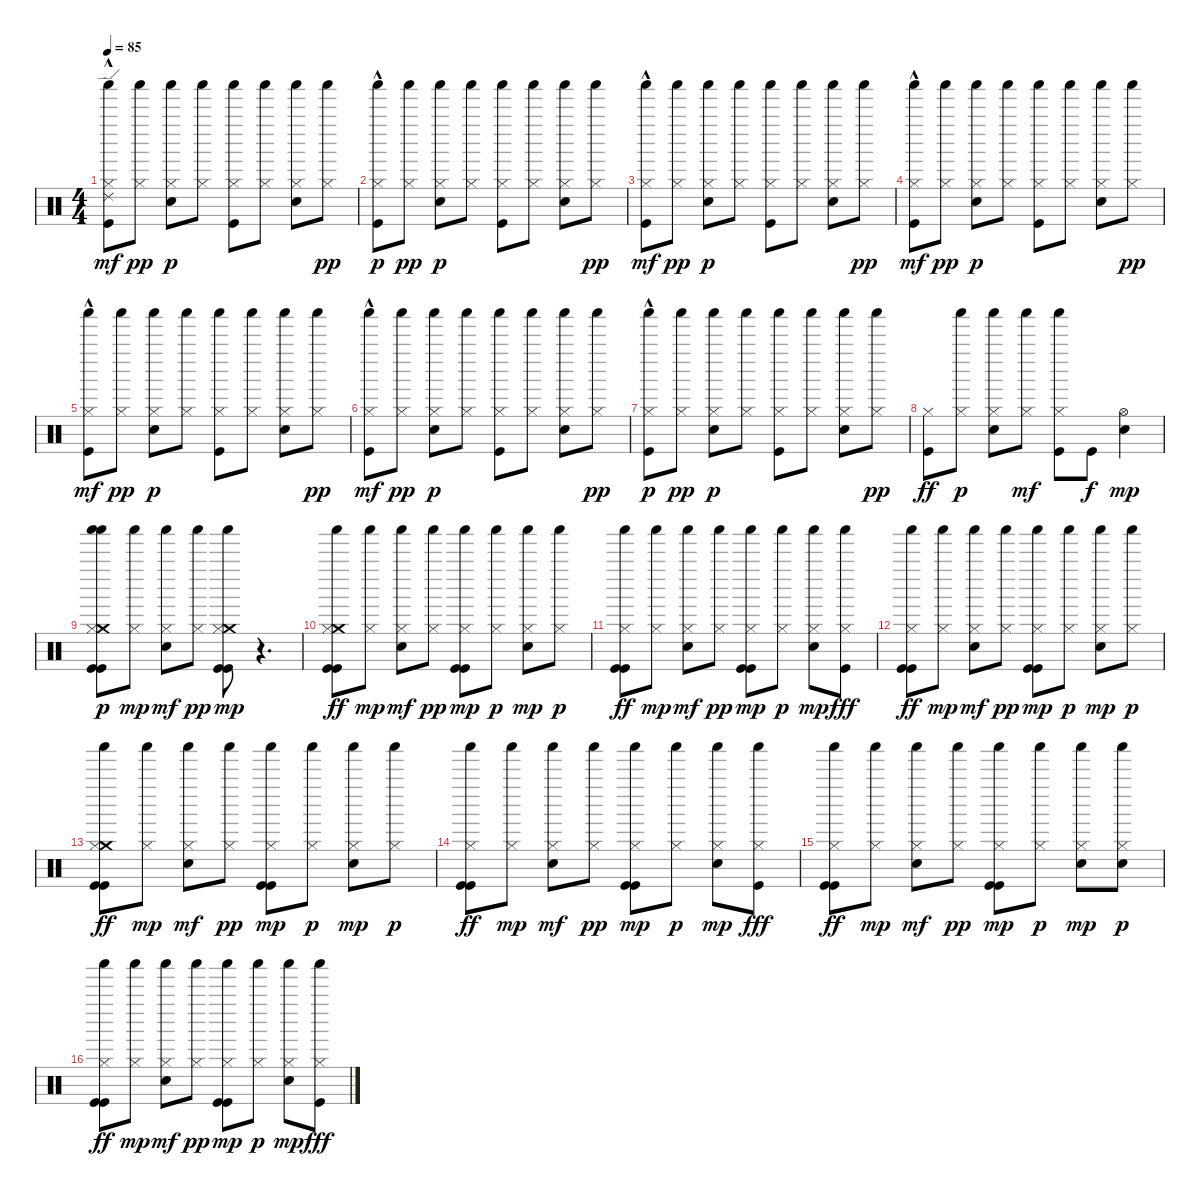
\track "" {instrument percussion}
\staff {score}
\articulation defaults
\ts (4 4)
\tempo 85
\clef neutral
\ks c
("Ride (edge) 2" "Hi-Hat (closed)" "Shaker (hit)" "Kick (hit)"{hac}).8{dy mf} ("Hi-Hat (closed)" "Shaker (hit)").8{dy pp} ("Electric Snare (hit)" "Hi-Hat (closed)" "Shaker (hit)").8{dy p} ("Hi-Hat (closed)" "Shaker (hit)").8 ("Hi-Hat (closed)" "Shaker (hit)" "Kick (hit)").8 ("Hi-Hat (closed)" "Shaker (hit)").8 ("Electric Snare (hit)" "Shaker (hit)" "Hi-Hat (closed)").8 ("Hi-Hat (closed)" "Shaker (hit)").8{dy pp} |
("Kick (hit)"{hac} "Hi-Hat (closed)" "Shaker (hit)").8{dy p} ("Hi-Hat (closed)" "Shaker (hit)").8{dy pp} ("Electric Snare (hit)" "Hi-Hat (closed)" "Shaker (hit)").8{dy p} ("Hi-Hat (closed)" "Shaker (hit)").8 ("Kick (hit)" "Hi-Hat (closed)" "Shaker (hit)").8 ("Hi-Hat (closed)" "Shaker (hit)").8 ("Electric Snare (hit)" "Shaker (hit)" "Hi-Hat (closed)").8 ("Hi-Hat (closed)" "Shaker (hit)").8{dy pp} |
("Hi-Hat (closed)" "Shaker (hit)" "Kick (hit)"{hac}).8{dy mf} ("Hi-Hat (closed)" "Shaker (hit)").8{dy pp} ("Electric Snare (hit)" "Hi-Hat (closed)" "Shaker (hit)").8{dy p} ("Hi-Hat (closed)" "Shaker (hit)").8 ("Hi-Hat (closed)" "Shaker (hit)" "Kick (hit)").8 ("Hi-Hat (closed)" "Shaker (hit)").8 ("Electric Snare (hit)" "Shaker (hit)" "Hi-Hat (closed)").8 ("Hi-Hat (closed)" "Shaker (hit)").8{dy pp} |
("Hi-Hat (closed)" "Shaker (hit)" "Kick (hit)"{hac}).8{dy mf} ("Hi-Hat (closed)" "Shaker (hit)").8{dy pp} ("Electric Snare (hit)" "Hi-Hat (closed)" "Shaker (hit)").8{dy p} ("Hi-Hat (closed)" "Shaker (hit)").8 ("Hi-Hat (closed)" "Shaker (hit)" "Kick (hit)").8 ("Hi-Hat (closed)" "Shaker (hit)").8 ("Electric Snare (hit)" "Shaker (hit)" "Hi-Hat (closed)").8 ("Hi-Hat (closed)" "Shaker (hit)").8{dy pp} |
("Hi-Hat (closed)" "Shaker (hit)" "Kick (hit)"{hac}).8{dy mf} ("Hi-Hat (closed)" "Shaker (hit)").8{dy pp} ("Electric Snare (hit)" "Hi-Hat (closed)" "Shaker (hit)").8{dy p} ("Hi-Hat (closed)" "Shaker (hit)").8 ("Hi-Hat (closed)" "Shaker (hit)" "Kick (hit)").8 ("Hi-Hat (closed)" "Shaker (hit)").8 ("Electric Snare (hit)" "Shaker (hit)" "Hi-Hat (closed)").8 ("Hi-Hat (closed)" "Shaker (hit)").8{dy pp} |
("Hi-Hat (closed)" "Shaker (hit)" "Kick (hit)"{hac}).8{dy mf} ("Hi-Hat (closed)" "Shaker (hit)").8{dy pp} ("Electric Snare (hit)" "Hi-Hat (closed)" "Shaker (hit)").8{dy p} ("Hi-Hat (closed)" "Shaker (hit)").8 ("Hi-Hat (closed)" "Shaker (hit)" "Kick (hit)").8 ("Hi-Hat (closed)" "Shaker (hit)").8 ("Electric Snare (hit)" "Shaker (hit)" "Hi-Hat (closed)").8 ("Hi-Hat (closed)" "Shaker (hit)").8{dy pp} |
("Kick (hit)"{hac} "Hi-Hat (closed)" "Shaker (hit)").8{dy p} ("Hi-Hat (closed)" "Shaker (hit)").8{dy pp} ("Electric Snare (hit)" "Hi-Hat (closed)" "Shaker (hit)").8{dy p} ("Hi-Hat (closed)" "Shaker (hit)").8 ("Kick (hit)" "Hi-Hat (closed)" "Shaker (hit)").8 ("Hi-Hat (closed)" "Shaker (hit)").8 ("Electric Snare (hit)" "Shaker (hit)" "Hi-Hat (closed)").8 ("Hi-Hat (closed)" "Shaker (hit)").8{dy pp} |
("Hi-Hat (closed)" "Kick (hit)").8{dy ff} ("Shaker (hit)" "Hi-Hat (closed)").8{dy p} ("Shaker (hit)" "Electric Snare (hit)" "Hi-Hat (closed)").8 ("Shaker (hit)" "Hi-Hat (closed)").8{dy mf} ("Kick (hit)" "Shaker (hit)" "Hi-Hat (closed)").8 "Kick (hit)".8{dy f} ("Hi-Hat (open)" "Electric Snare (hit)").4{dy mp} |
("Kick (hit)" "Shaker (hit)" "Crash medium (hit)" "Kick (hit)" "Hi-Hat (closed)" "Shaker (hit)").8{dy p} ("Hi-Hat (closed)" "Shaker (hit)").8{dy mp} ("Hi-Hat (closed)" "Shaker (hit)" "Metronome (bell)").8{dy mf} ("Hi-Hat (closed)" "Shaker (hit)").8{dy pp} ("Crash medium (hit)" "Kick (hit)" "Kick (hit)" "Hi-Hat (closed)" "Shaker (hit)").8{dy mp} r.4{d} |
("Crash medium (hit)" "Kick (hit)" "Hi-Hat (closed)" "Shaker (hit)" "Kick (hit)").8{dy ff} ("Hi-Hat (closed)" "Shaker (hit)").8{dy mp} ("Hi-Hat (closed)" "Shaker (hit)" "Metronome (bell)").8{dy mf} ("Hi-Hat (closed)" "Shaker (hit)").8{dy pp} ("Kick (hit)" "Kick (hit)" "Hi-Hat (closed)" "Shaker (hit)").8{dy mp} ("Hi-Hat (closed)" "Shaker (hit)").8{dy p} ("Metronome (bell)" "Shaker (hit)" "Hi-Hat (closed)").8{dy mp} ("Hi-Hat (closed)" "Shaker (hit)").8{dy p} |
("Kick (hit)" "Hi-Hat (closed)" "Shaker (hit)" "Kick (hit)").8{dy ff} ("Hi-Hat (closed)" "Shaker (hit)").8{dy mp} ("Hi-Hat (closed)" "Shaker (hit)" "Metronome (bell)").8{dy mf} ("Hi-Hat (closed)" "Shaker (hit)").8{dy pp} ("Kick (hit)" "Kick (hit)" "Hi-Hat (closed)" "Shaker (hit)").8{dy mp} ("Hi-Hat (closed)" "Shaker (hit)").8{dy p} ("Metronome (bell)" "Shaker (hit)" "Hi-Hat (closed)").8{dy mp} ("Hi-Hat (closed)" "Shaker (hit)" "Kick (hit)").8{dy fff} |
("Kick (hit)" "Hi-Hat (closed)" "Shaker (hit)" "Kick (hit)").8{dy ff} ("Hi-Hat (closed)" "Shaker (hit)").8{dy mp} ("Hi-Hat (closed)" "Shaker (hit)" "Metronome (bell)").8{dy mf} ("Hi-Hat (closed)" "Shaker (hit)").8{dy pp} ("Kick (hit)" "Kick (hit)" "Hi-Hat (closed)" "Shaker (hit)").8{dy mp} ("Hi-Hat (closed)" "Shaker (hit)").8{dy p} ("Metronome (bell)" "Shaker (hit)" "Hi-Hat (closed)").8{dy mp} ("Hi-Hat (closed)" "Shaker (hit)").8{dy p} |
("Crash medium (hit)" "Kick (hit)" "Hi-Hat (closed)" "Shaker (hit)" "Kick (hit)").8{dy ff} ("Hi-Hat (closed)" "Shaker (hit)").8{dy mp} ("Hi-Hat (closed)" "Shaker (hit)" "Metronome (bell)").8{dy mf} ("Hi-Hat (closed)" "Shaker (hit)").8{dy pp} ("Kick (hit)" "Kick (hit)" "Hi-Hat (closed)" "Shaker (hit)").8{dy mp} ("Hi-Hat (closed)" "Shaker (hit)").8{dy p} ("Metronome (bell)" "Shaker (hit)" "Hi-Hat (closed)").8{dy mp} ("Hi-Hat (closed)" "Shaker (hit)").8{dy p} |
("Kick (hit)" "Hi-Hat (closed)" "Shaker (hit)" "Kick (hit)").8{dy ff} ("Hi-Hat (closed)" "Shaker (hit)").8{dy mp} ("Hi-Hat (closed)" "Shaker (hit)" "Metronome (bell)").8{dy mf} ("Hi-Hat (closed)" "Shaker (hit)").8{dy pp} ("Kick (hit)" "Kick (hit)" "Hi-Hat (closed)" "Shaker (hit)").8{dy mp} ("Hi-Hat (closed)" "Shaker (hit)").8{dy p} ("Metronome (bell)" "Shaker (hit)" "Hi-Hat (closed)").8{dy mp} ("Hi-Hat (closed)" "Shaker (hit)" "Kick (hit)").8{dy fff} |
("Kick (hit)" "Hi-Hat (closed)" "Shaker (hit)" "Kick (hit)").8{dy ff} ("Hi-Hat (closed)" "Shaker (hit)").8{dy mp} ("Hi-Hat (closed)" "Shaker (hit)" "Metronome (bell)").8{dy mf} ("Hi-Hat (closed)" "Shaker (hit)").8{dy pp} ("Kick (hit)" "Kick (hit)" "Hi-Hat (closed)" "Shaker (hit)").8{dy mp} ("Hi-Hat (closed)" "Shaker (hit)").8{dy p} ("Metronome (bell)" "Shaker (hit)" "Hi-Hat (closed)").8{dy mp} ("Metronome (bell)" "Hi-Hat (closed)" "Shaker (hit)").8{dy p} |
("Kick (hit)" "Hi-Hat (closed)" "Shaker (hit)" "Kick (hit)").8{dy ff} ("Hi-Hat (closed)" "Shaker (hit)").8{dy mp} ("Hi-Hat (closed)" "Shaker (hit)" "Metronome (bell)").8{dy mf} ("Hi-Hat (closed)" "Shaker (hit)").8{dy pp} ("Kick (hit)" "Kick (hit)" "Hi-Hat (closed)" "Shaker (hit)").8{dy mp} ("Hi-Hat (closed)" "Shaker (hit)").8{dy p} ("Metronome (bell)" "Shaker (hit)" "Hi-Hat (closed)").8{dy mp} ("Hi-Hat (closed)" "Shaker (hit)" "Kick (hit)").8{dy fff}
